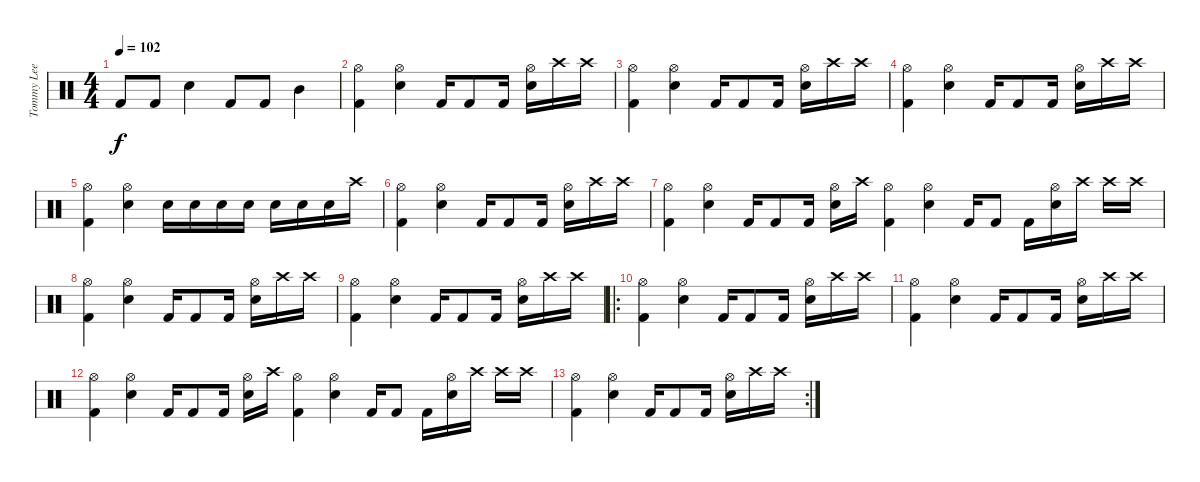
\track ("Tommy Lee" "Tommy Lee") {instrument percussion}
\staff {score}
\articulation defaults
\ts (4 4)
\tempo 102
\clef neutral
\ks c "Kick (hit) 2".8{dy f} "Kick (hit) 2".8 "Snare (hit) 2".4 "Kick (hit) 2".8 "Kick (hit) 2".8 "Mid Tom (hit)".4
|
("Hi-Hat (open)" "Kick (hit) 2").4 ("Hi-Hat (open)" "Snare (hit) 2").4 "Kick (hit) 2".16 "Kick (hit) 2".8 "Kick (hit) 2".16 ("Hi-Hat (open)" "Snare (hit) 2").16 "Crash high (hit)".16 "Crash high (hit)".16 |
("Hi-Hat (open)" "Kick (hit) 2").4 ("Hi-Hat (open)" "Snare (hit) 2").4 "Kick (hit) 2".16 "Kick (hit) 2".8 "Kick (hit) 2".16 ("Hi-Hat (open)" "Snare (hit) 2").16 "Crash high (hit)".16 "Crash high (hit)".16 |
("Hi-Hat (open)" "Kick (hit) 2").4 ("Hi-Hat (open)" "Snare (hit) 2").4 "Kick (hit) 2".16 "Kick (hit) 2".8 "Kick (hit) 2".16 ("Hi-Hat (open)" "Snare (hit) 2").16 "Crash high (hit)".16 "Crash high (hit)".16 |
("Hi-Hat (open)" "Kick (hit) 2").4 ("Hi-Hat (open)" "Snare (hit) 2").4 "Electric Snare (hit)".16 "Electric Snare (hit)".16 "Electric Snare (hit)".16 "Electric Snare (hit)".16 "Electric Snare (hit)".16 "Electric Snare (hit)".16 "Electric Snare (hit)".16 "Crash high (hit)".16 |
("Hi-Hat (open)" "Kick (hit) 2").4 ("Hi-Hat (open)" "Snare (hit) 2").4 "Kick (hit) 2".16 "Kick (hit) 2".8 "Kick (hit) 2".16 ("Hi-Hat (open)" "Snare (hit) 2").16 "Crash high (hit)".16 "Crash high (hit)".16 |
("Hi-Hat (open)" "Kick (hit) 2").4 ("Hi-Hat (open)" "Snare (hit) 2").4 "Kick (hit) 2".16 "Kick (hit) 2".8 "Kick (hit) 2".16 ("Hi-Hat (open)" "Snare (hit) 2").16 "Crash high (hit)".16 ("Hi-Hat (open)" "Kick (hit) 2").4 ("Hi-Hat (open)" "Snare (hit) 2").4 "Kick (hit) 2".16 "Kick (hit) 2".8 "Kick (hit) 2".16 ("Hi-Hat (open)" "Snare (hit) 2").16 "Crash high (hit)".16 "Crash high (hit)".16 "Crash high (hit)".16 |
("Hi-Hat (open)" "Kick (hit) 2").4 ("Hi-Hat (open)" "Snare (hit) 2").4 "Kick (hit) 2".16 "Kick (hit) 2".8 "Kick (hit) 2".16 ("Hi-Hat (open)" "Snare (hit) 2").16 "Crash high (hit)".16 "Crash high (hit)".16 |
("Hi-Hat (open)" "Kick (hit) 2").4 ("Hi-Hat (open)" "Snare (hit) 2").4 "Kick (hit) 2".16 "Kick (hit) 2".8 "Kick (hit) 2".16 ("Hi-Hat (open)" "Snare (hit) 2").16 "Crash high (hit)".16 "Crash high (hit)".16 |
\ro
("Hi-Hat (open)" "Kick (hit) 2").4 ("Hi-Hat (open)" "Snare (hit) 2").4 "Kick (hit) 2".16 "Kick (hit) 2".8 "Kick (hit) 2".16 ("Hi-Hat (open)" "Snare (hit) 2").16 "Crash high (hit)".16 "Crash high (hit)".16 |
("Hi-Hat (open)" "Kick (hit) 2").4 ("Hi-Hat (open)" "Snare (hit) 2").4 "Kick (hit) 2".16 "Kick (hit) 2".8 "Kick (hit) 2".16 ("Hi-Hat (open)" "Snare (hit) 2").16 "Crash high (hit)".16 "Crash high (hit)".16 |
("Hi-Hat (open)" "Kick (hit) 2").4 ("Hi-Hat (open)" "Snare (hit) 2").4 "Kick (hit) 2".16 "Kick (hit) 2".8 "Kick (hit) 2".16 ("Hi-Hat (open)" "Snare (hit) 2").16 "Crash high (hit)".16 ("Hi-Hat (open)" "Kick (hit) 2").4 ("Hi-Hat (open)" "Snare (hit) 2").4 "Kick (hit) 2".16 "Kick (hit) 2".8 "Kick (hit) 2".16 ("Hi-Hat (open)" "Snare (hit) 2").16 "Crash high (hit)".16 "Crash high (hit)".16 "Crash high (hit)".16 |
\rc 2
("Hi-Hat (open)" "Kick (hit) 2").4 ("Hi-Hat (open)" "Snare (hit) 2").4 "Kick (hit) 2".16 "Kick (hit) 2".8 "Kick (hit) 2".16 ("Hi-Hat (open)" "Snare (hit) 2").16 "Crash high (hit)".16 "Crash high (hit)".16
